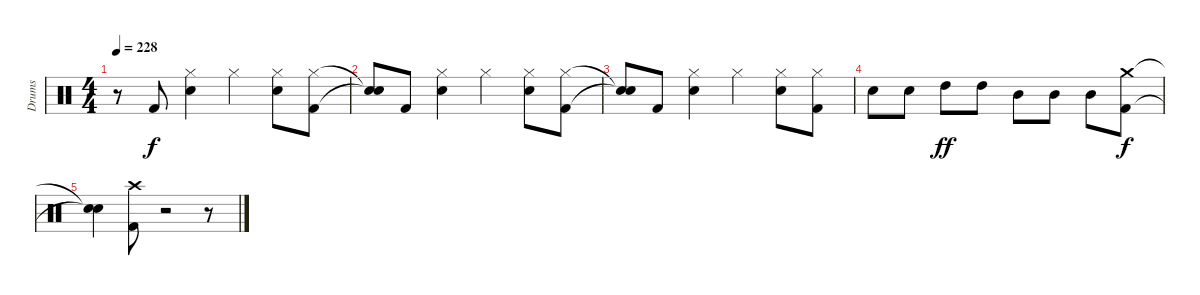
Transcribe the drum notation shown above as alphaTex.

\track ("Drums" "Drums") {instrument percussion}
\staff {score}
\articulation defaults
\ts (4 4)
\tempo 228
\clef neutral
\ks c
r.8{dy f} "Kick (hit) 2".8 ("Hi-Hat (closed)" "Electric Snare (hit)").4 "Hi-Hat (closed)".4 ("Hi-Hat (closed)" "Electric Snare (hit)").8 ("Hi-Hat (closed)" "Kick (hit) 2").8 |
("Snare (hit)"{t} "Snare (hit)"{t}).8 "Kick (hit) 2".8 ("Hi-Hat (closed)" "Electric Snare (hit)").4 "Hi-Hat (closed)".4 ("Hi-Hat (closed)" "Electric Snare (hit)").8 ("Hi-Hat (closed)" "Kick (hit) 2").8 |
("Snare (hit)"{t} "Snare (hit)"{t}).8 "Kick (hit) 2".8 ("Hi-Hat (closed)" "Electric Snare (hit)").4 "Hi-Hat (closed)".4 ("Hi-Hat (closed)" "Electric Snare (hit)").8 ("Hi-Hat (closed)" "Kick (hit) 2").8 |
"Electric Snare (hit)".8 "Electric Snare (hit)".8 "High Tom (hit)".8{dy ff} "High Tom (hit)".8 "Mid Tom (hit)".8 "Mid Tom (hit)".8 "Mid Tom (hit)".8 ("Crash medium (hit)" "Kick (hit) 2").8{dy f} |
("Snare (hit)"{t} "Snare (hit)"{t}).4 ("Crash high (hit)" "Kick (hit) 2").8 r.2 r.8
